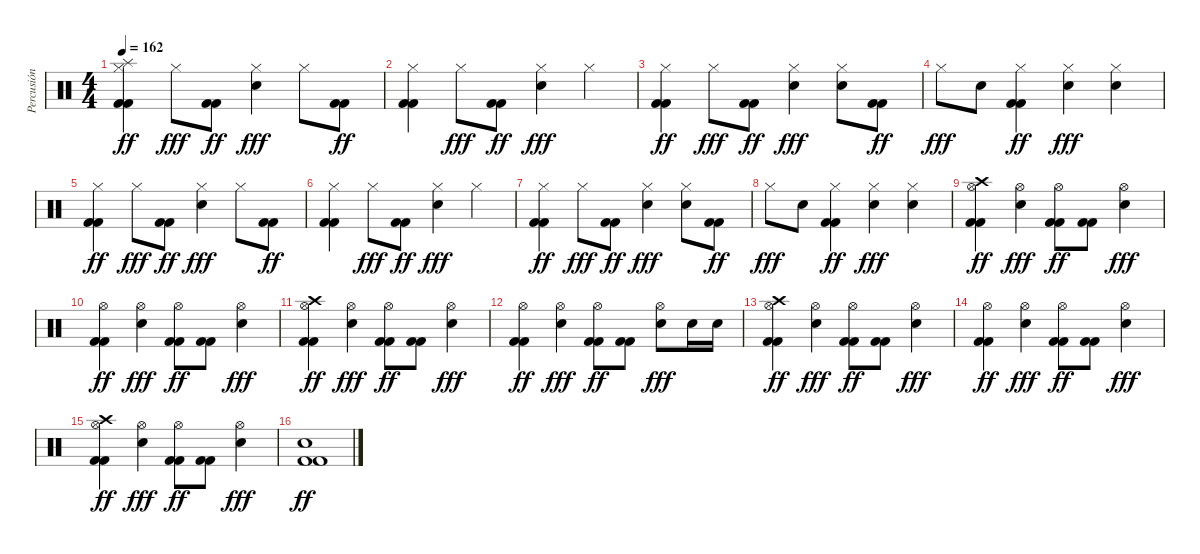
\track ("Percusión" "Percusión") {instrument percussion}
\staff {score}
\articulation defaults
\ts (4 4)
\tempo 162
\clef neutral
\ks c
("Splash (hit)" "Hi-Hat (closed)" "Kick (hit) 2" "Kick (hit) 2").4{dy ff} "Hi-Hat (closed)".8{dy fff} ("Kick (hit) 2" "Kick (hit) 2").8{dy ff} ("Hi-Hat (closed)" "Snare (hit) 2").4{dy fff} "Hi-Hat (closed)".8 ("Kick (hit) 2" "Kick (hit) 2").8{dy ff} |
("Hi-Hat (closed)" "Kick (hit) 2" "Kick (hit) 2").4 "Hi-Hat (closed)".8{dy fff} ("Kick (hit) 2" "Kick (hit) 2").8{dy ff} ("Hi-Hat (closed)" "Snare (hit) 2").4{dy fff} "Hi-Hat (closed)".4 |
("Hi-Hat (closed)" "Kick (hit) 2" "Kick (hit) 2").4{dy ff} "Hi-Hat (closed)".8{dy fff} ("Kick (hit) 2" "Kick (hit) 2").8{dy ff} ("Hi-Hat (closed)" "Snare (hit) 2").4{dy fff} ("Hi-Hat (closed)" "Snare (hit) 2").8 ("Kick (hit) 2" "Kick (hit) 2").8{dy ff} |
"Hi-Hat (closed)".8{dy fff} "Snare (hit) 2".8 ("Hi-Hat (closed)" "Kick (hit) 2" "Kick (hit) 2").4{dy ff} ("Hi-Hat (closed)" "Snare (hit) 2").4{dy fff} ("Hi-Hat (closed)" "Snare (hit) 2").4 |
("Hi-Hat (closed)" "Kick (hit) 2" "Kick (hit) 2").4{dy ff} "Hi-Hat (closed)".8{dy fff} ("Kick (hit) 2" "Kick (hit) 2").8{dy ff} ("Hi-Hat (closed)" "Snare (hit) 2").4{dy fff} "Hi-Hat (closed)".8 ("Kick (hit) 2" "Kick (hit) 2").8{dy ff} |
("Hi-Hat (closed)" "Kick (hit) 2" "Kick (hit) 2").4 "Hi-Hat (closed)".8{dy fff} ("Kick (hit) 2" "Kick (hit) 2").8{dy ff} ("Hi-Hat (closed)" "Snare (hit) 2").4{dy fff} "Hi-Hat (closed)".4 |
("Hi-Hat (closed)" "Kick (hit) 2" "Kick (hit) 2").4{dy ff} "Hi-Hat (closed)".8{dy fff} ("Kick (hit) 2" "Kick (hit) 2").8{dy ff} ("Hi-Hat (closed)" "Snare (hit) 2").4{dy fff} ("Hi-Hat (closed)" "Snare (hit) 2").8 ("Kick (hit) 2" "Kick (hit) 2").8{dy ff} |
"Hi-Hat (closed)".8{dy fff} "Snare (hit) 2".8 ("Hi-Hat (closed)" "Kick (hit) 2" "Kick (hit) 2").4{dy ff} ("Hi-Hat (closed)" "Snare (hit) 2").4{dy fff} ("Hi-Hat (closed)" "Snare (hit) 2").4 |
("Crash high (hit)" "Hi-Hat (open)" "Kick (hit) 2" "Kick (hit) 2").4{dy ff} ("Hi-Hat (open)" "Snare (hit) 2").4{dy fff} ("Hi-Hat (open)" "Kick (hit) 2" "Kick (hit) 2").8{dy ff} ("Kick (hit) 2" "Kick (hit) 2").8 ("Hi-Hat (open)" "Snare (hit) 2").4{dy fff} |
("Hi-Hat (open)" "Kick (hit) 2" "Kick (hit) 2").4{dy ff} ("Hi-Hat (open)" "Snare (hit) 2").4{dy fff} ("Hi-Hat (open)" "Kick (hit) 2" "Kick (hit) 2").8{dy ff} ("Kick (hit) 2" "Kick (hit) 2").8 ("Hi-Hat (open)" "Snare (hit) 2").4{dy fff} |
("Crash high (hit)" "Hi-Hat (open)" "Kick (hit) 2" "Kick (hit) 2").4{dy ff} ("Hi-Hat (open)" "Snare (hit) 2").4{dy fff} ("Hi-Hat (open)" "Kick (hit) 2" "Kick (hit) 2").8{dy ff} ("Kick (hit) 2" "Kick (hit) 2").8 ("Hi-Hat (open)" "Snare (hit) 2").4{dy fff} |
("Hi-Hat (open)" "Kick (hit) 2" "Kick (hit) 2").4{dy ff} ("Hi-Hat (open)" "Snare (hit) 2").4{dy fff} ("Hi-Hat (open)" "Kick (hit) 2" "Kick (hit) 2").8{dy ff} ("Kick (hit) 2" "Kick (hit) 2").8 ("Hi-Hat (open)" "Snare (hit) 2").8{dy fff} "Snare (hit) 2".16 "Snare (hit) 2".16 |
("Crash high (hit)" "Hi-Hat (open)" "Kick (hit) 2" "Kick (hit) 2").4{dy ff} ("Hi-Hat (open)" "Snare (hit) 2").4{dy fff} ("Hi-Hat (open)" "Kick (hit) 2" "Kick (hit) 2").8{dy ff} ("Kick (hit) 2" "Kick (hit) 2").8 ("Hi-Hat (open)" "Snare (hit) 2").4{dy fff} |
("Hi-Hat (open)" "Kick (hit) 2" "Kick (hit) 2").4{dy ff} ("Hi-Hat (open)" "Snare (hit) 2").4{dy fff} ("Hi-Hat (open)" "Kick (hit) 2" "Kick (hit) 2").8{dy ff} ("Kick (hit) 2" "Kick (hit) 2").8 ("Hi-Hat (open)" "Snare (hit) 2").4{dy fff} |
("Crash high (hit)" "Hi-Hat (open)" "Kick (hit) 2" "Kick (hit) 2").4{dy ff} ("Hi-Hat (open)" "Snare (hit) 2").4{dy fff} ("Hi-Hat (open)" "Kick (hit) 2" "Kick (hit) 2").8{dy ff} ("Kick (hit) 2" "Kick (hit) 2").8 ("Hi-Hat (open)" "Snare (hit) 2").4{dy fff} |
("Snare (hit) 2" "Kick (hit) 2" "Kick (hit) 2").1{dy ff}
